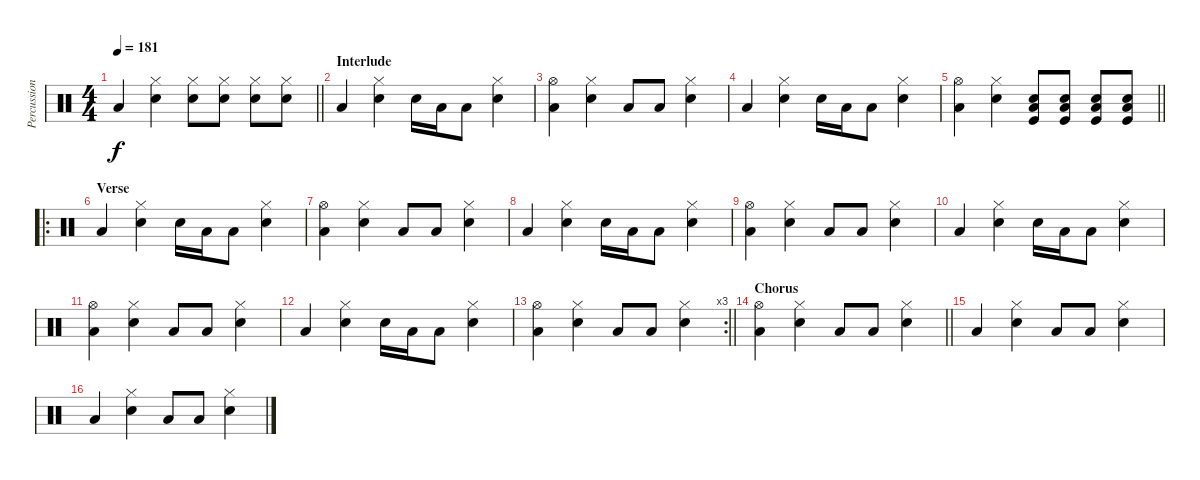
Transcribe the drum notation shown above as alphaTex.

\track ("Percussion" "Percussion") {instrument percussion}
\staff {score}
\articulation defaults
\ts (4 4)
\tempo 181
\clef neutral
\barLineRight lightlight
\ks c "Low Tom (hit)".4{dy f}
("Hi-Hat (closed)" "Snare (hit) 2").4 ("Hi-Hat (closed)" "Snare (hit) 2").8 ("Hi-Hat (closed)" "Snare (hit) 2").8 ("Hi-Hat (closed)" "Snare (hit) 2").8 ("Hi-Hat (closed)" "Snare (hit) 2").8 |
\section ("" "Interlude")
"Low Tom (hit)".4 ("Hi-Hat (closed)" "Snare (hit) 2").4 "Snare (hit) 2".16 "Low Tom (hit)".16 "Low Tom (hit)".8 ("Hi-Hat (closed)" "Snare (hit) 2").4 |
("Hi-Hat (open)" "Low Tom (hit)").4 ("Hi-Hat (closed)" "Snare (hit) 2").4 "Low Tom (hit)".8 "Low Tom (hit)".8 ("Hi-Hat (closed)" "Snare (hit) 2").4 |
"Low Tom (hit)".4 ("Hi-Hat (closed)" "Snare (hit) 2").4 "Snare (hit) 2".16 "Low Tom (hit)".16 "Low Tom (hit)".8 ("Hi-Hat (closed)" "Snare (hit) 2").4 |
\barLineRight lightlight
("Hi-Hat (open)" "Low Tom (hit)").4 ("Hi-Hat (closed)" "Snare (hit) 2").4 ("Low Floor Tom (hit)" "Snare (hit) 2" "Kick (hit)").8 ("Low Floor Tom (hit)" "Snare (hit) 2" "Kick (hit)").8 ("Low Floor Tom (hit)" "Snare (hit) 2" "Kick (hit)").8 ("Low Floor Tom (hit)" "Snare (hit) 2" "Kick (hit)").8 |
\ro
\section ("" "Verse")
"Low Tom (hit)".4 ("Hi-Hat (closed)" "Snare (hit) 2").4 "Snare (hit) 2".16 "Low Tom (hit)".16 "Low Tom (hit)".8 ("Hi-Hat (closed)" "Snare (hit) 2").4 |
("Hi-Hat (open)" "Low Tom (hit)").4 ("Hi-Hat (closed)" "Snare (hit) 2").4 "Low Tom (hit)".8 "Low Tom (hit)".8 ("Hi-Hat (closed)" "Snare (hit) 2").4 |
"Low Tom (hit)".4 ("Hi-Hat (closed)" "Snare (hit) 2").4 "Snare (hit) 2".16 "Low Tom (hit)".16 "Low Tom (hit)".8 ("Hi-Hat (closed)" "Snare (hit) 2").4 |
("Hi-Hat (open)" "Low Tom (hit)").4 ("Hi-Hat (closed)" "Snare (hit) 2").4 "Low Tom (hit)".8 "Low Tom (hit)".8 ("Hi-Hat (closed)" "Snare (hit) 2").4 |
"Low Tom (hit)".4 ("Hi-Hat (closed)" "Snare (hit) 2").4 "Snare (hit) 2".16 "Low Tom (hit)".16 "Low Tom (hit)".8 ("Hi-Hat (closed)" "Snare (hit) 2").4 |
("Hi-Hat (open)" "Low Tom (hit)").4 ("Hi-Hat (closed)" "Snare (hit) 2").4 "Low Tom (hit)".8 "Low Tom (hit)".8 ("Hi-Hat (closed)" "Snare (hit) 2").4 |
"Low Tom (hit)".4 ("Hi-Hat (closed)" "Snare (hit) 2").4 "Snare (hit) 2".16 "Low Tom (hit)".16 "Low Tom (hit)".8 ("Hi-Hat (closed)" "Snare (hit) 2").4 |
\rc 3
\barLineRight lightlight
("Hi-Hat (open)" "Low Tom (hit)").4 ("Hi-Hat (closed)" "Snare (hit) 2").4 "Low Tom (hit)".8 "Low Tom (hit)".8 ("Hi-Hat (closed)" "Snare (hit) 2").4 |
\section ("" "Chorus")
\barLineRight lightlight
("Hi-Hat (open)" "Low Tom (hit)").4 ("Hi-Hat (closed)" "Snare (hit) 2").4 "Low Tom (hit)".8 "Low Tom (hit)".8 ("Hi-Hat (closed)" "Snare (hit) 2").4 |
"Low Tom (hit)".4 ("Hi-Hat (closed)" "Snare (hit) 2").4 "Low Tom (hit)".8 "Low Tom (hit)".8 ("Hi-Hat (closed)" "Snare (hit) 2").4 |
"Low Tom (hit)".4 ("Hi-Hat (closed)" "Snare (hit) 2").4 "Low Tom (hit)".8 "Low Tom (hit)".8 ("Hi-Hat (closed)" "Snare (hit) 2").4
